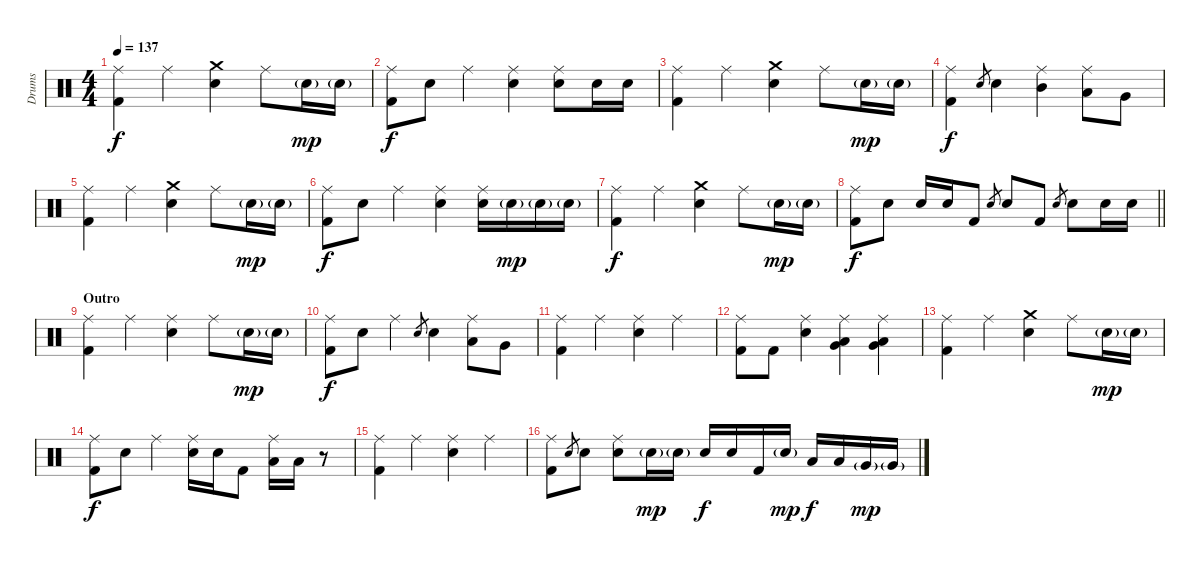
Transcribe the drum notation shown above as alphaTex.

\track ("Drums" "Drums") {instrument percussion}
\staff {score}
\articulation defaults
\ts (4 4)
\tempo 137
\clef neutral
\ks c
("Ride (middle)" "Kick (hit) 2").4{dy f} "Ride (middle)".4 ("Crash medium (hit)" "Electric Snare (hit)").4 "Ride (middle)".8 "Electric Snare (hit)"{g}.16{dy mp} "Electric Snare (hit)"{g}.16 |
("Ride (middle)" "Kick (hit) 2").8{dy f} "Electric Snare (hit)".8 "Ride (middle)".4 ("Ride (middle)" "Electric Snare (hit)").4 ("Ride (middle)" "Electric Snare (hit)").8 "Electric Snare (hit)".16 "Electric Snare (hit)".16 |
("Ride (middle)" "Kick (hit) 2").4 "Ride (middle)".4 ("Crash medium (hit)" "Electric Snare (hit)").4 "Ride (middle)".8 "Electric Snare (hit)"{g}.16{dy mp} "Electric Snare (hit)"{g}.16 |
("Ride (middle)" "Kick (hit) 2").4{dy f} "Electric Snare (hit)".8{gr} "Electric Snare (hit)".4 ("Ride (middle)" "Mid Tom (hit)").4 ("Ride (middle)" "Low Tom (hit)").8 "Very Low Tom (hit)".8 |
("Ride (middle)" "Kick (hit) 2").4 "Ride (middle)".4 ("Crash medium (hit)" "Electric Snare (hit)").4 "Ride (middle)".8 "Electric Snare (hit)"{g}.16{dy mp} "Electric Snare (hit)"{g}.16 |
("Ride (middle)" "Kick (hit) 2").8{dy f} "Electric Snare (hit)".8 "Ride (middle)".4 ("Ride (middle)" "Electric Snare (hit)").4 ("Ride (middle)" "Electric Snare (hit)").16 "Electric Snare (hit)"{g}.16{dy mp} "Electric Snare (hit)"{g}.16 "Electric Snare (hit)"{g}.16 |
("Ride (middle)" "Kick (hit) 2").4{dy f} "Ride (middle)".4 ("Crash medium (hit)" "Electric Snare (hit)").4 "Ride (middle)".8 "Electric Snare (hit)"{g}.16{dy mp} "Electric Snare (hit)"{g}.16 |
\barLineRight lightlight
("Ride (middle)" "Kick (hit) 2").8{dy f} "Electric Snare (hit)".8 "Electric Snare (hit)".16 "Electric Snare (hit)".16 "Kick (hit) 2".8 "Electric Snare (hit)".8{gr} "Electric Snare (hit)".8 "Kick (hit) 2".8 "Electric Snare (hit)".8{gr} "Electric Snare (hit)".8 "Electric Snare (hit)".16 "Electric Snare (hit)".16 |
\section ("" "Outro")
("Ride (middle)" "Kick (hit) 2").4 "Ride (middle)".4 ("Ride (middle)" "Electric Snare (hit)").4 "Ride (middle)".8 "Electric Snare (hit)"{g}.16{dy mp} "Electric Snare (hit)"{g}.16 |
("Ride (middle)" "Kick (hit) 2").8{dy f} "Electric Snare (hit)".8 "Ride (middle)".4 "Electric Snare (hit)".8{gr} "Electric Snare (hit)".4 ("Ride (middle)" "Low Tom (hit)").8 "Very Low Tom (hit)".8 |
("Ride (middle)" "Kick (hit) 2").4 "Ride (middle)".4 ("Ride (middle)" "Electric Snare (hit)").4 "Ride (middle)".4 |
("Ride (middle)" "Kick (hit) 2").8 "Kick (hit) 2".8 ("Ride (middle)" "Electric Snare (hit)").4 ("Ride (middle)" "Very Low Tom (hit)" "Low Tom (hit)").4 ("Ride (middle)" "Low Floor Tom (hit)" "Very Low Tom (hit)").4 |
("Ride (middle)" "Kick (hit) 2").4 "Ride (middle)".4 ("Crash medium (hit)" "Electric Snare (hit)").4 "Ride (middle)".8 "Electric Snare (hit)"{g}.16{dy mp} "Electric Snare (hit)"{g}.16 |
("Ride (middle)" "Kick (hit) 2").8{dy f} "Electric Snare (hit)".8 "Ride (middle)".4 ("Ride (middle)" "Electric Snare (hit)").16 "Electric Snare (hit)".16 "Kick (hit) 2".8 ("Ride (middle)" "Low Floor Tom (hit)").16 "Low Floor Tom (hit)".16 r.8 |
("Ride (middle)" "Kick (hit) 2").4 "Ride (middle)".4 ("Ride (middle)" "Electric Snare (hit)").4 "Ride (middle)".4 |
("Ride (middle)" "Kick (hit) 2").8 "Electric Snare (hit)".8{gr} "Electric Snare (hit)".8 ("Ride (middle)" "Electric Snare (hit)").8 "Electric Snare (hit)"{g}.16{dy mp} "Electric Snare (hit)"{g}.16 "Electric Snare (hit)".16{dy f} "Electric Snare (hit)".16 "Kick (hit) 2".16 "Electric Snare (hit)"{g}.16{dy mp} "Low Tom (hit)".16{dy f} "Low Tom (hit)".16 "Very Low Tom (hit)"{g}.16{dy mp} "Very Low Tom (hit)"{g}.16
